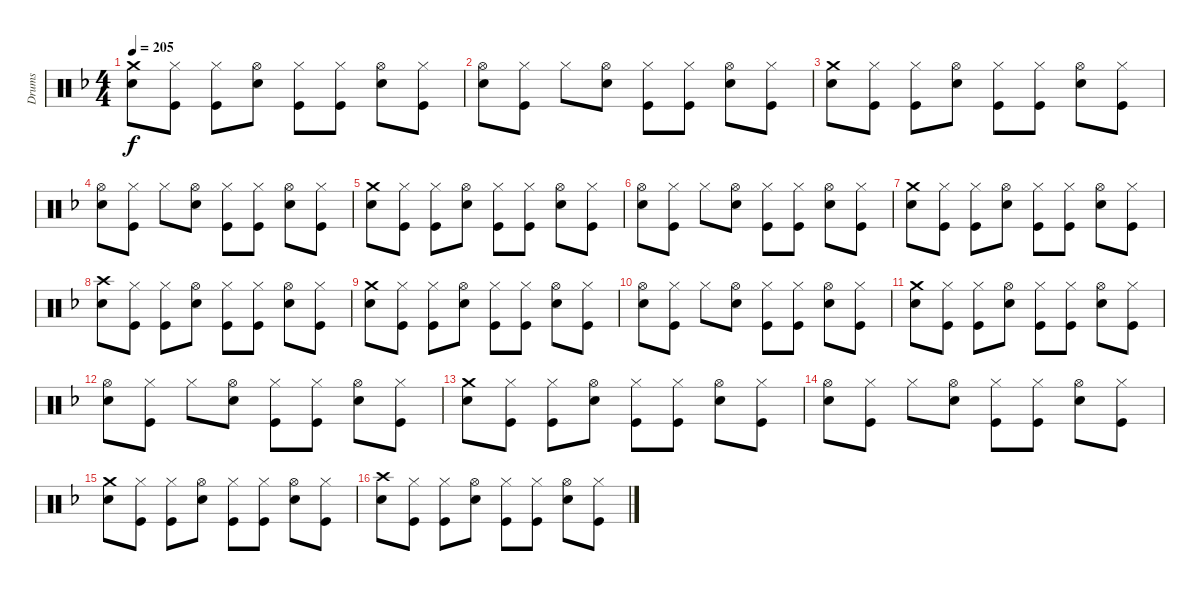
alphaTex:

\track ("Drums" "Drums") {instrument percussion}
\staff {score}
\articulation defaults
\ts (4 4)
\tempo 205
\clef neutral
\ks f
("Crash medium (hit)" "Electric Snare (hit)").8{dy f} ("Hi-Hat (closed)" "Kick (hit)").8 ("Hi-Hat (closed)" "Kick (hit)").8 ("Hi-Hat (open)" "Electric Snare (hit)").8 ("Hi-Hat (closed)" "Kick (hit)").8 ("Hi-Hat (closed)" "Kick (hit)").8 ("Hi-Hat (open)" "Electric Snare (hit)").8 ("Hi-Hat (closed)" "Kick (hit)").8 |
("Hi-Hat (open)" "Electric Snare (hit)").8 ("Hi-Hat (closed)" "Kick (hit)").8 "Hi-Hat (closed)".8 ("Hi-Hat (open)" "Electric Snare (hit)").8 ("Hi-Hat (closed)" "Kick (hit)").8 ("Hi-Hat (closed)" "Kick (hit)").8 ("Hi-Hat (open)" "Electric Snare (hit)").8 ("Hi-Hat (closed)" "Kick (hit)").8 |
("Crash medium (hit)" "Electric Snare (hit)").8 ("Hi-Hat (closed)" "Kick (hit)").8 ("Hi-Hat (closed)" "Kick (hit)").8 ("Hi-Hat (open)" "Electric Snare (hit)").8 ("Hi-Hat (closed)" "Kick (hit)").8 ("Hi-Hat (closed)" "Kick (hit)").8 ("Hi-Hat (open)" "Electric Snare (hit)").8 ("Hi-Hat (closed)" "Kick (hit)").8 |
("Hi-Hat (open)" "Electric Snare (hit)").8 ("Hi-Hat (closed)" "Kick (hit)").8 "Hi-Hat (closed)".8 ("Hi-Hat (open)" "Electric Snare (hit)").8 ("Hi-Hat (closed)" "Kick (hit)").8 ("Hi-Hat (closed)" "Kick (hit)").8 ("Hi-Hat (open)" "Electric Snare (hit)").8 ("Hi-Hat (closed)" "Kick (hit)").8 |
("Crash medium (hit)" "Electric Snare (hit)").8 ("Hi-Hat (closed)" "Kick (hit)").8 ("Hi-Hat (closed)" "Kick (hit)").8 ("Hi-Hat (open)" "Electric Snare (hit)").8 ("Hi-Hat (closed)" "Kick (hit)").8 ("Hi-Hat (closed)" "Kick (hit)").8 ("Hi-Hat (open)" "Electric Snare (hit)").8 ("Hi-Hat (closed)" "Kick (hit)").8 |
("Hi-Hat (open)" "Electric Snare (hit)").8 ("Hi-Hat (closed)" "Kick (hit)").8 "Hi-Hat (closed)".8 ("Hi-Hat (open)" "Electric Snare (hit)").8 ("Hi-Hat (closed)" "Kick (hit)").8 ("Hi-Hat (closed)" "Kick (hit)").8 ("Hi-Hat (open)" "Electric Snare (hit)").8 ("Hi-Hat (closed)" "Kick (hit)").8 |
("Crash medium (hit)" "Electric Snare (hit)").8 ("Hi-Hat (closed)" "Kick (hit)").8 ("Hi-Hat (closed)" "Kick (hit)").8 ("Hi-Hat (open)" "Electric Snare (hit)").8 ("Hi-Hat (closed)" "Kick (hit)").8 ("Hi-Hat (closed)" "Kick (hit)").8 ("Hi-Hat (open)" "Electric Snare (hit)").8 ("Hi-Hat (closed)" "Kick (hit)").8 |
("Crash high (hit)" "Electric Snare (hit)").8 ("Hi-Hat (closed)" "Kick (hit)").8 ("Hi-Hat (closed)" "Kick (hit)").8 ("Hi-Hat (open)" "Electric Snare (hit)").8 ("Hi-Hat (closed)" "Kick (hit)").8 ("Hi-Hat (closed)" "Kick (hit)").8 ("Hi-Hat (open)" "Electric Snare (hit)").8 ("Hi-Hat (closed)" "Kick (hit)").8 |
("Crash medium (hit)" "Electric Snare (hit)").8 ("Hi-Hat (closed)" "Kick (hit)").8 ("Hi-Hat (closed)" "Kick (hit)").8 ("Hi-Hat (open)" "Electric Snare (hit)").8 ("Hi-Hat (closed)" "Kick (hit)").8 ("Hi-Hat (closed)" "Kick (hit)").8 ("Hi-Hat (open)" "Electric Snare (hit)").8 ("Hi-Hat (closed)" "Kick (hit)").8 |
("Hi-Hat (open)" "Electric Snare (hit)").8 ("Hi-Hat (closed)" "Kick (hit)").8 "Hi-Hat (closed)".8 ("Hi-Hat (open)" "Electric Snare (hit)").8 ("Hi-Hat (closed)" "Kick (hit)").8 ("Hi-Hat (closed)" "Kick (hit)").8 ("Hi-Hat (open)" "Electric Snare (hit)").8 ("Hi-Hat (closed)" "Kick (hit)").8 |
("Crash medium (hit)" "Electric Snare (hit)").8 ("Hi-Hat (closed)" "Kick (hit)").8 ("Hi-Hat (closed)" "Kick (hit)").8 ("Hi-Hat (open)" "Electric Snare (hit)").8 ("Hi-Hat (closed)" "Kick (hit)").8 ("Hi-Hat (closed)" "Kick (hit)").8 ("Hi-Hat (open)" "Electric Snare (hit)").8 ("Hi-Hat (closed)" "Kick (hit)").8 |
("Hi-Hat (open)" "Electric Snare (hit)").8 ("Hi-Hat (closed)" "Kick (hit)").8 "Hi-Hat (closed)".8 ("Hi-Hat (open)" "Electric Snare (hit)").8 ("Hi-Hat (closed)" "Kick (hit)").8 ("Hi-Hat (closed)" "Kick (hit)").8 ("Hi-Hat (open)" "Electric Snare (hit)").8 ("Hi-Hat (closed)" "Kick (hit)").8 |
("Crash medium (hit)" "Electric Snare (hit)").8 ("Hi-Hat (closed)" "Kick (hit)").8 ("Hi-Hat (closed)" "Kick (hit)").8 ("Hi-Hat (open)" "Electric Snare (hit)").8 ("Hi-Hat (closed)" "Kick (hit)").8 ("Hi-Hat (closed)" "Kick (hit)").8 ("Hi-Hat (open)" "Electric Snare (hit)").8 ("Hi-Hat (closed)" "Kick (hit)").8 |
("Hi-Hat (open)" "Electric Snare (hit)").8 ("Hi-Hat (closed)" "Kick (hit)").8 "Hi-Hat (closed)".8 ("Hi-Hat (open)" "Electric Snare (hit)").8 ("Hi-Hat (closed)" "Kick (hit)").8 ("Hi-Hat (closed)" "Kick (hit)").8 ("Hi-Hat (open)" "Electric Snare (hit)").8 ("Hi-Hat (closed)" "Kick (hit)").8 |
("Crash medium (hit)" "Electric Snare (hit)").8 ("Hi-Hat (closed)" "Kick (hit)").8 ("Hi-Hat (closed)" "Kick (hit)").8 ("Hi-Hat (open)" "Electric Snare (hit)").8 ("Hi-Hat (closed)" "Kick (hit)").8 ("Hi-Hat (closed)" "Kick (hit)").8 ("Hi-Hat (open)" "Electric Snare (hit)").8 ("Hi-Hat (closed)" "Kick (hit)").8 |
("Crash high (hit)" "Electric Snare (hit)").8 ("Hi-Hat (closed)" "Kick (hit)").8 ("Hi-Hat (closed)" "Kick (hit)").8 ("Hi-Hat (open)" "Electric Snare (hit)").8 ("Hi-Hat (closed)" "Kick (hit)").8 ("Hi-Hat (closed)" "Kick (hit)").8 ("Hi-Hat (open)" "Electric Snare (hit)").8 ("Hi-Hat (closed)" "Kick (hit)").8
